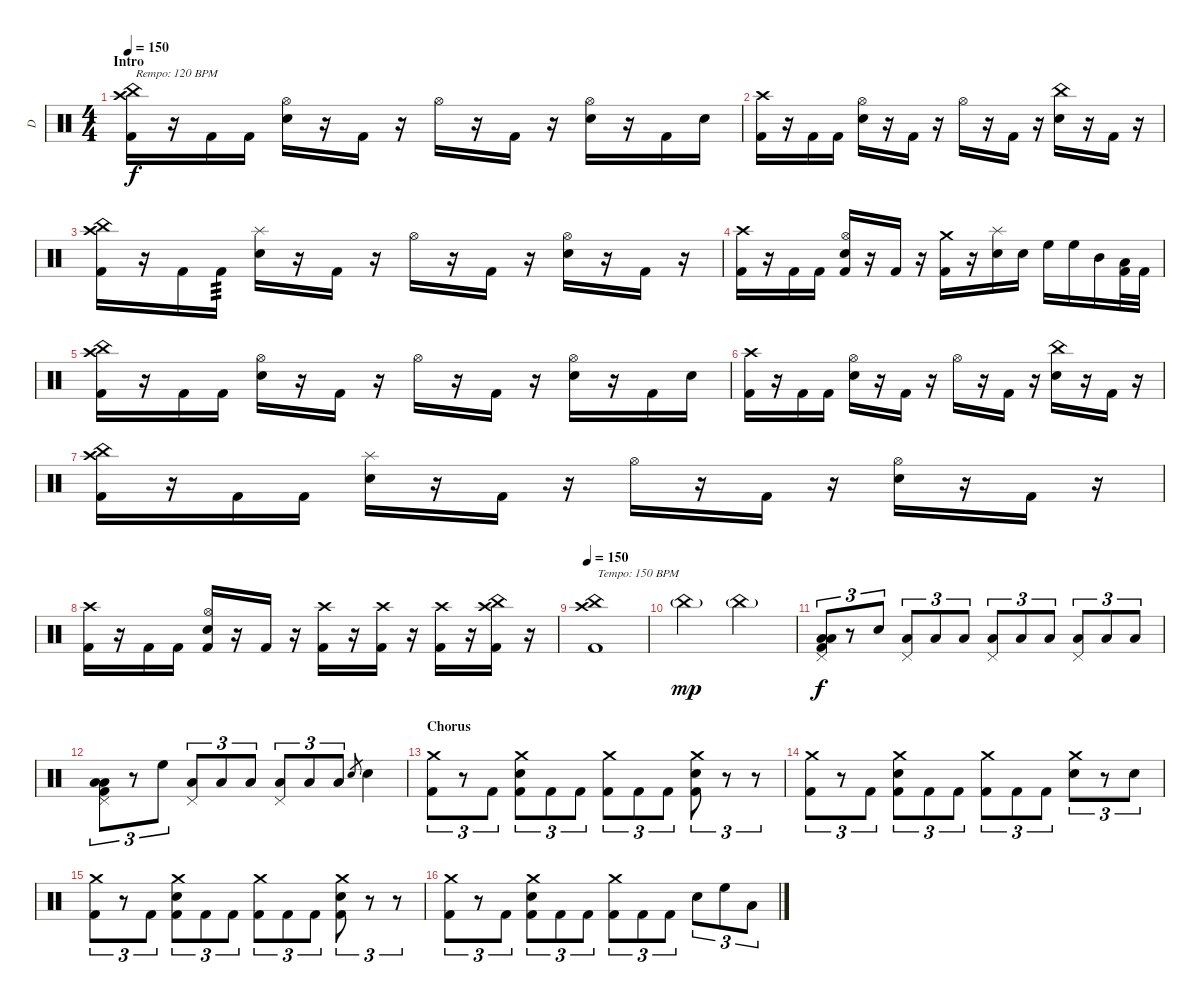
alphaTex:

\track ("D" "D") {instrument percussion}
\staff {score}
\articulation defaults
\ts (4 4)
\section ("" "Intro")
\tempo 150
\tempo 120
\tempo 150
\clef neutral
\ks c
("Crash high (hit)" "China (hit)" "Kick (hit) 2").16{txt "Rempo: 120 BPM" dy f} r.16 "Kick (hit) 2".16 "Kick (hit) 2".16 ("Hi-Hat (open)" "Electric Snare (hit)").16 r.16 "Kick (hit) 2".16 r.16 "Hi-Hat (open)".16 r.16 "Kick (hit) 2".16 r.16 ("Hi-Hat (open)" "Electric Snare (hit)").16 r.16 "Kick (hit) 2".16 "Electric Snare (hit)".16 |
("Crash high (hit)" "Kick (hit) 2").16 r.16 "Kick (hit) 2".16 "Kick (hit) 2".16 ("Hi-Hat (open)" "Electric Snare (hit)").16 r.16 "Kick (hit) 2".16 r.16 "Hi-Hat (open)".16 r.16 "Kick (hit) 2".16 r.16 ("China (hit)" "Electric Snare (hit)").16 r.16 "Kick (hit) 2".16 r.16 |
("Crash high (hit)" "China (hit)" "Kick (hit) 2").16 r.16 "Kick (hit) 2".16 "Kick (hit) 2".16{tp 3} ("Splash (hit)" "Electric Snare (hit)").16 r.16 "Kick (hit) 2".16 r.16 "Hi-Hat (open)".16 r.16 "Kick (hit) 2".16 r.16 ("Hi-Hat (open)" "Electric Snare (hit)").16 r.16 "Kick (hit) 2".16 r.16 |
("Crash high (hit)" "Kick (hit) 2").16 r.16 "Kick (hit) 2".16 "Kick (hit) 2".16 ("Hi-Hat (open)" "Electric Snare (hit)" "Kick (hit) 2").16 r.16 "Kick (hit) 2".16 r.16 ("Crash medium (hit)" "Kick (hit) 2").16 r.16 ("Splash (hit)" "Electric Snare (hit)").16 "Electric Snare (hit)".16 "High Floor Tom (hit)".16 "High Floor Tom (hit)".16 "Mid Tom (hit)".16 ("Low Tom (hit)" "Kick (hit) 2").32 "Kick (hit) 2".32 |
("Crash high (hit)" "China (hit)" "Kick (hit) 2").16 r.16 "Kick (hit) 2".16 "Kick (hit) 2".16 ("Hi-Hat (open)" "Electric Snare (hit)").16 r.16 "Kick (hit) 2".16 r.16 "Hi-Hat (open)".16 r.16 "Kick (hit) 2".16 r.16 ("Hi-Hat (open)" "Electric Snare (hit)").16 r.16 "Kick (hit) 2".16 "Electric Snare (hit)".16 |
("Crash high (hit)" "Kick (hit) 2").16 r.16 "Kick (hit) 2".16 "Kick (hit) 2".16 ("Hi-Hat (open)" "Electric Snare (hit)").16 r.16 "Kick (hit) 2".16 r.16 "Hi-Hat (open)".16 r.16 "Kick (hit) 2".16 r.16 ("China (hit)" "Electric Snare (hit)").16 r.16 "Kick (hit) 2".16 r.16 |
("Crash high (hit)" "China (hit)" "Kick (hit) 2").16 r.16 "Kick (hit) 2".16 "Kick (hit) 2".16 ("Splash (hit)" "Electric Snare (hit)").16 r.16 "Kick (hit) 2".16 r.16 "Hi-Hat (open)".16 r.16 "Kick (hit) 2".16 r.16 ("Hi-Hat (open)" "Electric Snare (hit)").16 r.16 "Kick (hit) 2".16 r.16 |
("Crash high (hit)" "Kick (hit) 2").16 r.16 "Kick (hit) 2".16 "Kick (hit) 2".16 ("Hi-Hat (open)" "Electric Snare (hit)" "Kick (hit) 2").16 r.16 "Kick (hit) 2".16 r.16 ("Crash high (hit)" "Kick (hit) 2").16 r.16 ("Crash high (hit)" "Kick (hit) 2").16 r.16 ("Crash high (hit)" "Kick (hit) 2").16 r.16 ("Crash high (hit)" "China (hit)" "Kick (hit) 2").16 r.16 |
\section ("" "")
\tempo 150
("Crash high (hit)" "China (hit)" "Kick (hit) 2").1{txt "Tempo: 150 BPM"} |
"China (hit)"{g}.2{dy mp} "China (hit)"{g}.2 |
("Pedal Hi-Hat (hit)" "Low Tom (hit)" "Low Floor Tom (hit)" "Kick (hit) 2").8{tu (3 2) dy f} r.8{tu (3 2)} "Electric Snare (hit)".8{tu (3 2)} ("Pedal Hi-Hat (hit)" "Low Tom (hit)").8{tu (3 2)} "Low Tom (hit)".8{tu (3 2)} "Low Tom (hit)".8{tu (3 2)} ("Pedal Hi-Hat (hit)" "Low Tom (hit)").8{tu (3 2)} "Low Tom (hit)".8{tu (3 2)} "Low Tom (hit)".8{tu (3 2)} ("Pedal Hi-Hat (hit)" "Low Floor Tom (hit)").8{tu (3 2)} "Low Floor Tom (hit)".8{tu (3 2)} "Low Floor Tom (hit)".8{tu (3 2)} |
("Pedal Hi-Hat (hit)" "Low Tom (hit)" "Low Floor Tom (hit)" "Kick (hit) 2").8{tu (3 2)} r.8{tu (3 2)} "High Floor Tom (hit)".8{tu (3 2)} ("Pedal Hi-Hat (hit)" "Low Tom (hit)").8{tu (3 2)} "Low Tom (hit)".8{tu (3 2)} "Low Tom (hit)".8{tu (3 2)} ("Pedal Hi-Hat (hit)" "Low Tom (hit)").8{tu (3 2)} "Low Tom (hit)".8{tu (3 2)} "Low Tom (hit)".8{tu (3 2)} "Electric Snare (hit)".8{gr} "Electric Snare (hit)".4 |
\section ("" "Chorus")
("Crash medium (hit)" "Kick (hit) 2").8{tu (3 2)} r.8{tu (3 2)} "Kick (hit) 2".8{tu (3 2)} ("Crash medium (hit)" "Electric Snare (hit)" "Kick (hit) 2").8{tu (3 2)} "Kick (hit) 2".8{tu (3 2)} "Kick (hit) 2".8{tu (3 2)} ("Crash medium (hit)" "Kick (hit) 2").8{tu (3 2)} "Kick (hit) 2".8{tu (3 2)} "Kick (hit) 2".8{tu (3 2)} ("Crash medium (hit)" "Electric Snare (hit)" "Kick (hit) 2").8{tu (3 2)} r.8{tu (3 2)} r.8{tu (3 2)} |
("Crash medium (hit)" "Kick (hit) 2").8{tu (3 2)} r.8{tu (3 2)} "Kick (hit) 2".8{tu (3 2)} ("Crash medium (hit)" "Electric Snare (hit)" "Kick (hit) 2").8{tu (3 2)} "Kick (hit) 2".8{tu (3 2)} "Kick (hit) 2".8{tu (3 2)} ("Crash medium (hit)" "Kick (hit) 2").8{tu (3 2)} "Kick (hit) 2".8{tu (3 2)} "Kick (hit) 2".8{tu (3 2)} ("Crash medium (hit)" "Electric Snare (hit)").8{tu (3 2)} r.8{tu (3 2)} "Electric Snare (hit)".8{tu (3 2)} |
("Crash medium (hit)" "Kick (hit) 2").8{tu (3 2)} r.8{tu (3 2)} "Kick (hit) 2".8{tu (3 2)} ("Crash medium (hit)" "Electric Snare (hit)" "Kick (hit) 2").8{tu (3 2)} "Kick (hit) 2".8{tu (3 2)} "Kick (hit) 2".8{tu (3 2)} ("Crash medium (hit)" "Kick (hit) 2").8{tu (3 2)} "Kick (hit) 2".8{tu (3 2)} "Kick (hit) 2".8{tu (3 2)} ("Crash medium (hit)" "Electric Snare (hit)" "Kick (hit) 2").8{tu (3 2)} r.8{tu (3 2)} r.8{tu (3 2)} |
("Crash medium (hit)" "Kick (hit) 2").8{tu (3 2)} r.8{tu (3 2)} "Kick (hit) 2".8{tu (3 2)} ("Crash medium (hit)" "Electric Snare (hit)" "Kick (hit) 2").8{tu (3 2)} "Kick (hit) 2".8{tu (3 2)} "Kick (hit) 2".8{tu (3 2)} ("Crash medium (hit)" "Kick (hit) 2").8{tu (3 2)} "Kick (hit) 2".8{tu (3 2)} "Kick (hit) 2".8{tu (3 2)} "Electric Snare (hit)".8{tu (3 2)} "High Floor Tom (hit)".8{tu (3 2)} "Low Tom (hit)".8{tu (3 2)}
